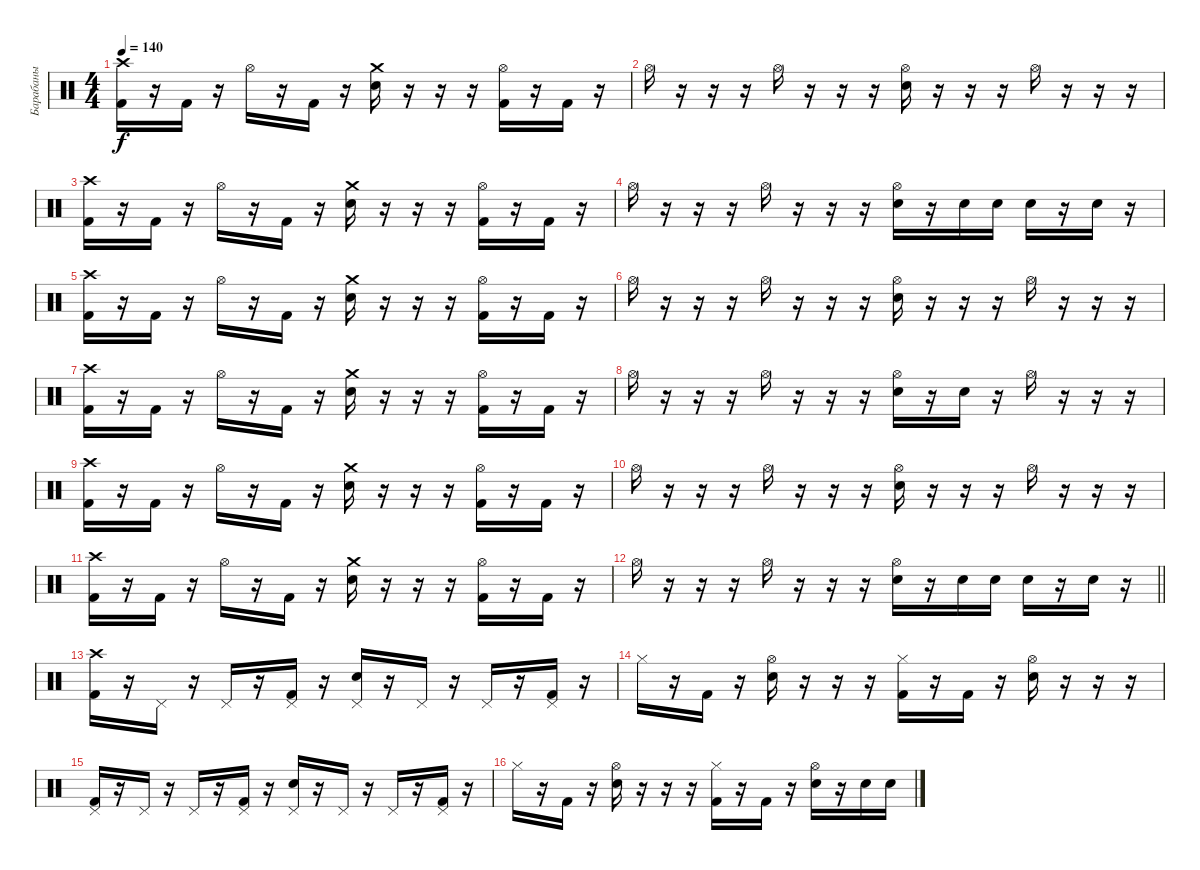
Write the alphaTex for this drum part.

\track ("Барабаны" "Барабаны") {instrument percussion}
\staff {score}
\articulation defaults
\ts (4 4)
\tempo 140
\clef neutral
\ks c
("Crash high (hit)" "Kick (hit) 2").16{dy f} r.16 "Kick (hit) 2".16 r.16 "Hi-Hat (open)".16 r.16 "Kick (hit) 2".16 r.16 ("Crash medium (hit)" "Electric Snare (hit)").16 r.16 r.16 r.16 ("Hi-Hat (open)" "Kick (hit) 2").16 r.16 "Kick (hit) 2".16 r.16 |
"Hi-Hat (open)".16 r.16 r.16 r.16 "Hi-Hat (open)".16 r.16 r.16 r.16 ("Hi-Hat (open)" "Electric Snare (hit)").16 r.16 r.16 r.16 "Hi-Hat (open)".16 r.16 r.16 r.16 |
("Crash high (hit)" "Kick (hit) 2").16 r.16 "Kick (hit) 2".16 r.16 "Hi-Hat (open)".16 r.16 "Kick (hit) 2".16 r.16 ("Crash medium (hit)" "Electric Snare (hit)").16 r.16 r.16 r.16 ("Hi-Hat (open)" "Kick (hit) 2").16 r.16 "Kick (hit) 2".16 r.16 |
"Hi-Hat (open)".16 r.16 r.16 r.16 "Hi-Hat (open)".16 r.16 r.16 r.16 ("Hi-Hat (open)" "Electric Snare (hit)").16 r.16 "Electric Snare (hit)".16 "Electric Snare (hit)".16 "Electric Snare (hit)".16 r.16 "Electric Snare (hit)".16 r.16 |
("Crash high (hit)" "Kick (hit) 2").16 r.16 "Kick (hit) 2".16 r.16 "Hi-Hat (open)".16 r.16 "Kick (hit) 2".16 r.16 ("Crash medium (hit)" "Electric Snare (hit)").16 r.16 r.16 r.16 ("Hi-Hat (open)" "Kick (hit) 2").16 r.16 "Kick (hit) 2".16 r.16 |
"Hi-Hat (open)".16 r.16 r.16 r.16 "Hi-Hat (open)".16 r.16 r.16 r.16 ("Hi-Hat (open)" "Electric Snare (hit)").16 r.16 r.16 r.16 "Hi-Hat (open)".16 r.16 r.16 r.16 |
("Crash high (hit)" "Kick (hit) 2").16 r.16 "Kick (hit) 2".16 r.16 "Hi-Hat (open)".16 r.16 "Kick (hit) 2".16 r.16 ("Crash medium (hit)" "Electric Snare (hit)").16 r.16 r.16 r.16 ("Hi-Hat (open)" "Kick (hit) 2").16 r.16 "Kick (hit) 2".16 r.16 |
"Hi-Hat (open)".16 r.16 r.16 r.16 "Hi-Hat (open)".16 r.16 r.16 r.16 ("Hi-Hat (open)" "Electric Snare (hit)").16 r.16 "Electric Snare (hit)".16 r.16 "Hi-Hat (open)".16 r.16 r.16 r.16 |
("Crash high (hit)" "Kick (hit) 2").16 r.16 "Kick (hit) 2".16 r.16 "Hi-Hat (open)".16 r.16 "Kick (hit) 2".16 r.16 ("Crash medium (hit)" "Electric Snare (hit)").16 r.16 r.16 r.16 ("Hi-Hat (open)" "Kick (hit) 2").16 r.16 "Kick (hit) 2".16 r.16 |
"Hi-Hat (open)".16 r.16 r.16 r.16 "Hi-Hat (open)".16 r.16 r.16 r.16 ("Hi-Hat (open)" "Electric Snare (hit)").16 r.16 r.16 r.16 "Hi-Hat (open)".16 r.16 r.16 r.16 |
("Crash high (hit)" "Kick (hit) 2").16 r.16 "Kick (hit) 2".16 r.16 "Hi-Hat (open)".16 r.16 "Kick (hit) 2".16 r.16 ("Crash medium (hit)" "Electric Snare (hit)").16 r.16 r.16 r.16 ("Hi-Hat (open)" "Kick (hit) 2").16 r.16 "Kick (hit) 2".16 r.16 |
\barLineRight lightlight "Hi-Hat (open)".16
r.16 r.16 r.16 "Hi-Hat (open)".16 r.16 r.16 r.16 ("Hi-Hat (open)" "Electric Snare (hit)").16 r.16 "Electric Snare (hit)".16 "Electric Snare (hit)".16 "Electric Snare (hit)".16 r.16 "Electric Snare (hit)".16 r.16 |
\section ("" " ")
("Crash high (hit)" "Kick (hit) 2").16 r.16 "Pedal Hi-Hat (hit)".16 r.16 "Pedal Hi-Hat (hit)".16 r.16 ("Pedal Hi-Hat (hit)" "Kick (hit) 2").16 r.16 ("Pedal Hi-Hat (hit)" "Electric Snare (hit)").16 r.16 "Pedal Hi-Hat (hit)".16 r.16 "Pedal Hi-Hat (hit)".16 r.16 ("Pedal Hi-Hat (hit)" "Kick (hit) 2").16 r.16 |
"Hi-Hat (closed)".16 r.16 "Kick (hit) 2".16 r.16 ("Hi-Hat (open)" "Electric Snare (hit)").16 r.16 r.16 r.16 ("Hi-Hat (closed)" "Kick (hit) 2").16 r.16 "Kick (hit) 2".16 r.16 ("Hi-Hat (open)" "Electric Snare (hit)").16 r.16 r.16 r.16 |
("Pedal Hi-Hat (hit)" "Kick (hit) 2").16 r.16 "Pedal Hi-Hat (hit)".16 r.16 "Pedal Hi-Hat (hit)".16 r.16 ("Pedal Hi-Hat (hit)" "Kick (hit) 2").16 r.16 ("Pedal Hi-Hat (hit)" "Electric Snare (hit)").16 r.16 "Pedal Hi-Hat (hit)".16 r.16 "Pedal Hi-Hat (hit)".16 r.16 ("Pedal Hi-Hat (hit)" "Kick (hit) 2").16 r.16 |
"Hi-Hat (closed)".16 r.16 "Kick (hit) 2".16 r.16 ("Hi-Hat (open)" "Electric Snare (hit)").16 r.16 r.16 r.16 ("Hi-Hat (closed)" "Kick (hit) 2").16 r.16 "Kick (hit) 2".16 r.16 ("Hi-Hat (open)" "Electric Snare (hit)").16 r.16 "Electric Snare (hit)".16 "Electric Snare (hit)".16
